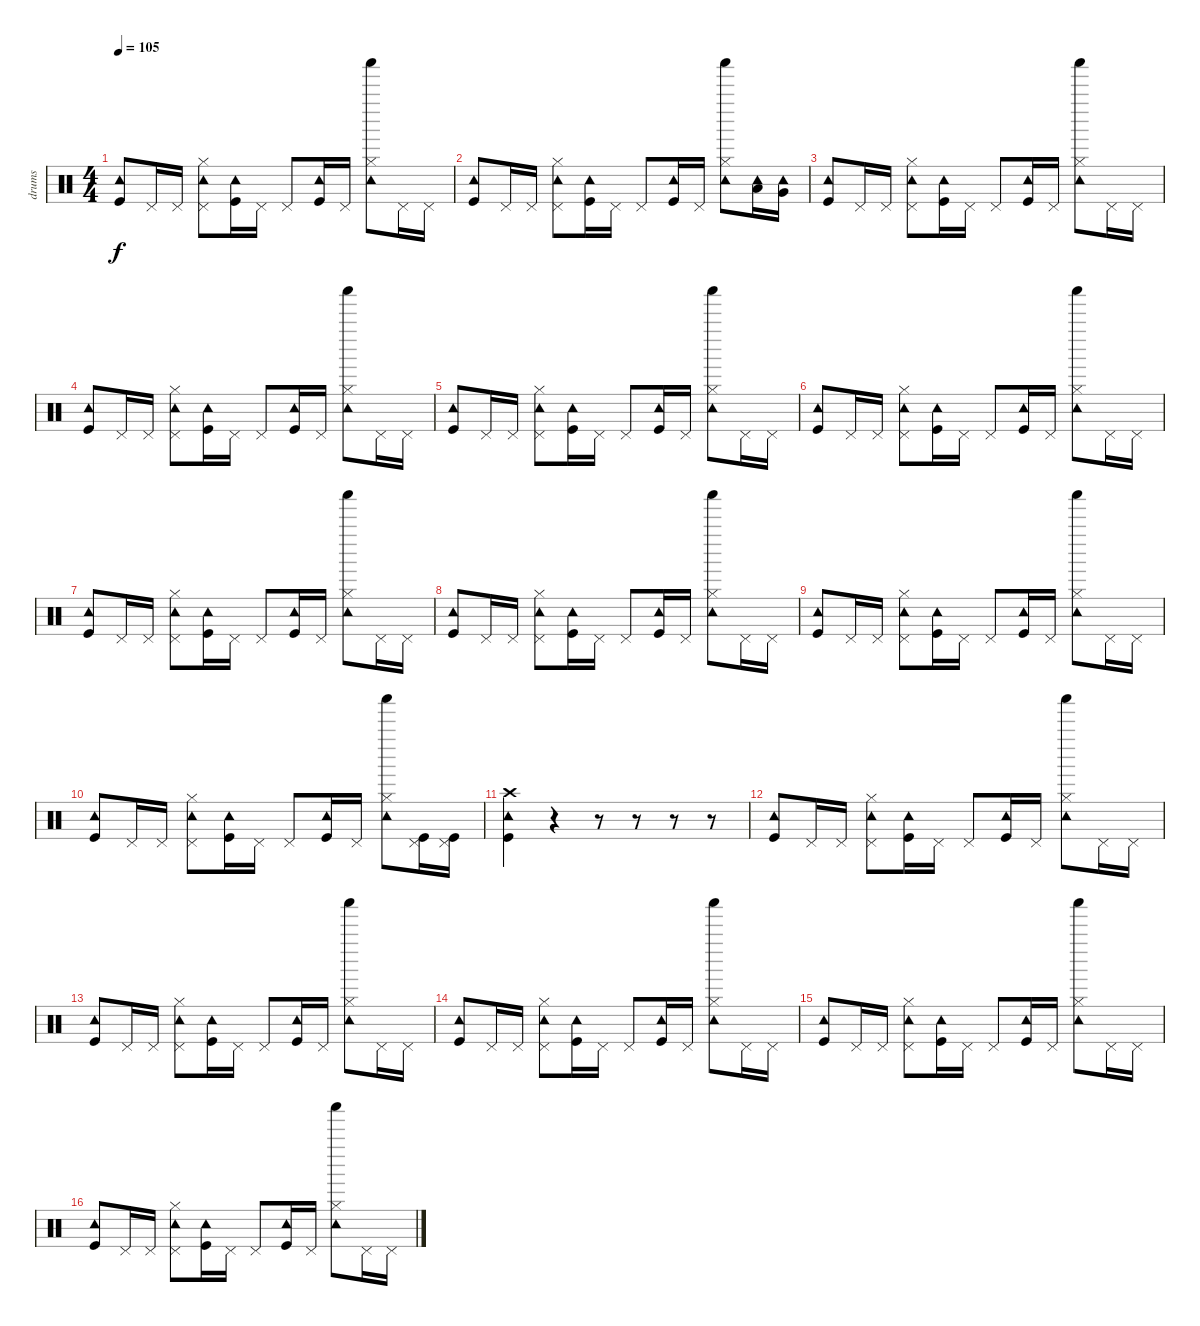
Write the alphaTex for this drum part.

\track ("drums" "drums") {instrument percussion}
\staff {score}
\articulation defaults
\ts (4 4)
\tempo 105
\clef neutral
\ks c
("Kick (hit)" "Tambourine (hit)").8{dy f} "Pedal Hi-Hat (hit)".16 "Pedal Hi-Hat (hit)".16 ("Tambourine (hit)" "Pedal Hi-Hat (hit)" "Hi-Hat (closed)").8 ("Kick (hit)" "Tambourine (hit)").16 "Pedal Hi-Hat (hit)".16 "Pedal Hi-Hat (hit)".8 ("Kick (hit)" "Tambourine (hit)").16 "Pedal Hi-Hat (hit)".16 ("Tambourine (hit)" "Shaker (hit)" "Hi-Hat (closed)").8 "Pedal Hi-Hat (hit)".16 "Pedal Hi-Hat (hit)".16 |
("Kick (hit)" "Tambourine (hit)").8 "Pedal Hi-Hat (hit)".16 "Pedal Hi-Hat (hit)".16 ("Tambourine (hit)" "Pedal Hi-Hat (hit)" "Hi-Hat (closed)").8 ("Kick (hit)" "Tambourine (hit)").16 "Pedal Hi-Hat (hit)".16 "Pedal Hi-Hat (hit)".8 ("Kick (hit)" "Tambourine (hit)").16 "Pedal Hi-Hat (hit)".16 ("Tambourine (hit)" "Shaker (hit)" "Hi-Hat (closed)").8 ("Tambourine (hit)" "Low Floor Tom (hit)").16 ("Tambourine (hit)" "Very Low Tom (hit)").16 |
("Kick (hit)" "Tambourine (hit)").8 "Pedal Hi-Hat (hit)".16 "Pedal Hi-Hat (hit)".16 ("Tambourine (hit)" "Pedal Hi-Hat (hit)" "Hi-Hat (closed)").8 ("Kick (hit)" "Tambourine (hit)").16 "Pedal Hi-Hat (hit)".16 "Pedal Hi-Hat (hit)".8 ("Kick (hit)" "Tambourine (hit)").16 "Pedal Hi-Hat (hit)".16 ("Tambourine (hit)" "Shaker (hit)" "Hi-Hat (closed)").8 "Pedal Hi-Hat (hit)".16 "Pedal Hi-Hat (hit)".16 |
("Kick (hit)" "Tambourine (hit)").8 "Pedal Hi-Hat (hit)".16 "Pedal Hi-Hat (hit)".16 ("Tambourine (hit)" "Pedal Hi-Hat (hit)" "Hi-Hat (closed)").8 ("Kick (hit)" "Tambourine (hit)").16 "Pedal Hi-Hat (hit)".16 "Pedal Hi-Hat (hit)".8 ("Kick (hit)" "Tambourine (hit)").16 "Pedal Hi-Hat (hit)".16 ("Tambourine (hit)" "Shaker (hit)" "Hi-Hat (closed)").8 "Pedal Hi-Hat (hit)".16 "Pedal Hi-Hat (hit)".16 |
("Kick (hit)" "Tambourine (hit)").8 "Pedal Hi-Hat (hit)".16 "Pedal Hi-Hat (hit)".16 ("Tambourine (hit)" "Pedal Hi-Hat (hit)" "Hi-Hat (closed)").8 ("Kick (hit)" "Tambourine (hit)").16 "Pedal Hi-Hat (hit)".16 "Pedal Hi-Hat (hit)".8 ("Kick (hit)" "Tambourine (hit)").16 "Pedal Hi-Hat (hit)".16 ("Tambourine (hit)" "Shaker (hit)" "Hi-Hat (closed)").8 "Pedal Hi-Hat (hit)".16 "Pedal Hi-Hat (hit)".16 |
("Kick (hit)" "Tambourine (hit)").8 "Pedal Hi-Hat (hit)".16 "Pedal Hi-Hat (hit)".16 ("Tambourine (hit)" "Pedal Hi-Hat (hit)" "Hi-Hat (closed)").8 ("Kick (hit)" "Tambourine (hit)").16 "Pedal Hi-Hat (hit)".16 "Pedal Hi-Hat (hit)".8 ("Kick (hit)" "Tambourine (hit)").16 "Pedal Hi-Hat (hit)".16 ("Tambourine (hit)" "Shaker (hit)" "Hi-Hat (closed)").8 "Pedal Hi-Hat (hit)".16 "Pedal Hi-Hat (hit)".16 |
("Kick (hit)" "Tambourine (hit)").8 "Pedal Hi-Hat (hit)".16 "Pedal Hi-Hat (hit)".16 ("Tambourine (hit)" "Pedal Hi-Hat (hit)" "Hi-Hat (closed)").8 ("Kick (hit)" "Tambourine (hit)").16 "Pedal Hi-Hat (hit)".16 "Pedal Hi-Hat (hit)".8 ("Kick (hit)" "Tambourine (hit)").16 "Pedal Hi-Hat (hit)".16 ("Tambourine (hit)" "Shaker (hit)" "Hi-Hat (closed)").8 "Pedal Hi-Hat (hit)".16 "Pedal Hi-Hat (hit)".16 |
("Kick (hit)" "Tambourine (hit)").8 "Pedal Hi-Hat (hit)".16 "Pedal Hi-Hat (hit)".16 ("Tambourine (hit)" "Pedal Hi-Hat (hit)" "Hi-Hat (closed)").8 ("Kick (hit)" "Tambourine (hit)").16 "Pedal Hi-Hat (hit)".16 "Pedal Hi-Hat (hit)".8 ("Kick (hit)" "Tambourine (hit)").16 "Pedal Hi-Hat (hit)".16 ("Tambourine (hit)" "Shaker (hit)" "Hi-Hat (closed)").8 "Pedal Hi-Hat (hit)".16 "Pedal Hi-Hat (hit)".16 |
("Kick (hit)" "Tambourine (hit)").8 "Pedal Hi-Hat (hit)".16 "Pedal Hi-Hat (hit)".16 ("Tambourine (hit)" "Pedal Hi-Hat (hit)" "Hi-Hat (closed)").8 ("Kick (hit)" "Tambourine (hit)").16 "Pedal Hi-Hat (hit)".16 "Pedal Hi-Hat (hit)".8 ("Kick (hit)" "Tambourine (hit)").16 "Pedal Hi-Hat (hit)".16 ("Tambourine (hit)" "Shaker (hit)" "Hi-Hat (closed)").8 "Pedal Hi-Hat (hit)".16 "Pedal Hi-Hat (hit)".16 |
("Kick (hit)" "Tambourine (hit)").8 "Pedal Hi-Hat (hit)".16 "Pedal Hi-Hat (hit)".16 ("Tambourine (hit)" "Pedal Hi-Hat (hit)" "Hi-Hat (closed)").8 ("Kick (hit)" "Tambourine (hit)").16 "Pedal Hi-Hat (hit)".16 "Pedal Hi-Hat (hit)".8 ("Kick (hit)" "Tambourine (hit)").16 "Pedal Hi-Hat (hit)".16 ("Tambourine (hit)" "Shaker (hit)" "Hi-Hat (closed)").8 ("Kick (hit)" "Pedal Hi-Hat (hit)").16 ("Kick (hit)" "Pedal Hi-Hat (hit)").16 |
("Crash high (hit)" "Kick (hit)" "Tambourine (hit)").4 r.4 r.8 r.8 r.8 r.8 |
("Kick (hit)" "Tambourine (hit)").8 "Pedal Hi-Hat (hit)".16 "Pedal Hi-Hat (hit)".16 ("Tambourine (hit)" "Pedal Hi-Hat (hit)" "Hi-Hat (closed)").8 ("Kick (hit)" "Tambourine (hit)").16 "Pedal Hi-Hat (hit)".16 "Pedal Hi-Hat (hit)".8 ("Kick (hit)" "Tambourine (hit)").16 "Pedal Hi-Hat (hit)".16 ("Tambourine (hit)" "Shaker (hit)" "Hi-Hat (closed)").8 "Pedal Hi-Hat (hit)".16 "Pedal Hi-Hat (hit)".16 |
("Kick (hit)" "Tambourine (hit)").8 "Pedal Hi-Hat (hit)".16 "Pedal Hi-Hat (hit)".16 ("Tambourine (hit)" "Pedal Hi-Hat (hit)" "Hi-Hat (closed)").8 ("Kick (hit)" "Tambourine (hit)").16 "Pedal Hi-Hat (hit)".16 "Pedal Hi-Hat (hit)".8 ("Kick (hit)" "Tambourine (hit)").16 "Pedal Hi-Hat (hit)".16 ("Tambourine (hit)" "Shaker (hit)" "Hi-Hat (closed)").8 "Pedal Hi-Hat (hit)".16 "Pedal Hi-Hat (hit)".16 |
("Kick (hit)" "Tambourine (hit)").8 "Pedal Hi-Hat (hit)".16 "Pedal Hi-Hat (hit)".16 ("Tambourine (hit)" "Pedal Hi-Hat (hit)" "Hi-Hat (closed)").8 ("Kick (hit)" "Tambourine (hit)").16 "Pedal Hi-Hat (hit)".16 "Pedal Hi-Hat (hit)".8 ("Kick (hit)" "Tambourine (hit)").16 "Pedal Hi-Hat (hit)".16 ("Tambourine (hit)" "Shaker (hit)" "Hi-Hat (closed)").8 "Pedal Hi-Hat (hit)".16 "Pedal Hi-Hat (hit)".16 |
("Kick (hit)" "Tambourine (hit)").8 "Pedal Hi-Hat (hit)".16 "Pedal Hi-Hat (hit)".16 ("Tambourine (hit)" "Pedal Hi-Hat (hit)" "Hi-Hat (closed)").8 ("Kick (hit)" "Tambourine (hit)").16 "Pedal Hi-Hat (hit)".16 "Pedal Hi-Hat (hit)".8 ("Kick (hit)" "Tambourine (hit)").16 "Pedal Hi-Hat (hit)".16 ("Tambourine (hit)" "Shaker (hit)" "Hi-Hat (closed)").8 "Pedal Hi-Hat (hit)".16 "Pedal Hi-Hat (hit)".16 |
("Kick (hit)" "Tambourine (hit)").8 "Pedal Hi-Hat (hit)".16 "Pedal Hi-Hat (hit)".16 ("Tambourine (hit)" "Pedal Hi-Hat (hit)" "Hi-Hat (closed)").8 ("Kick (hit)" "Tambourine (hit)").16 "Pedal Hi-Hat (hit)".16 "Pedal Hi-Hat (hit)".8 ("Kick (hit)" "Tambourine (hit)").16 "Pedal Hi-Hat (hit)".16 ("Tambourine (hit)" "Shaker (hit)" "Hi-Hat (closed)").8 "Pedal Hi-Hat (hit)".16 "Pedal Hi-Hat (hit)".16
